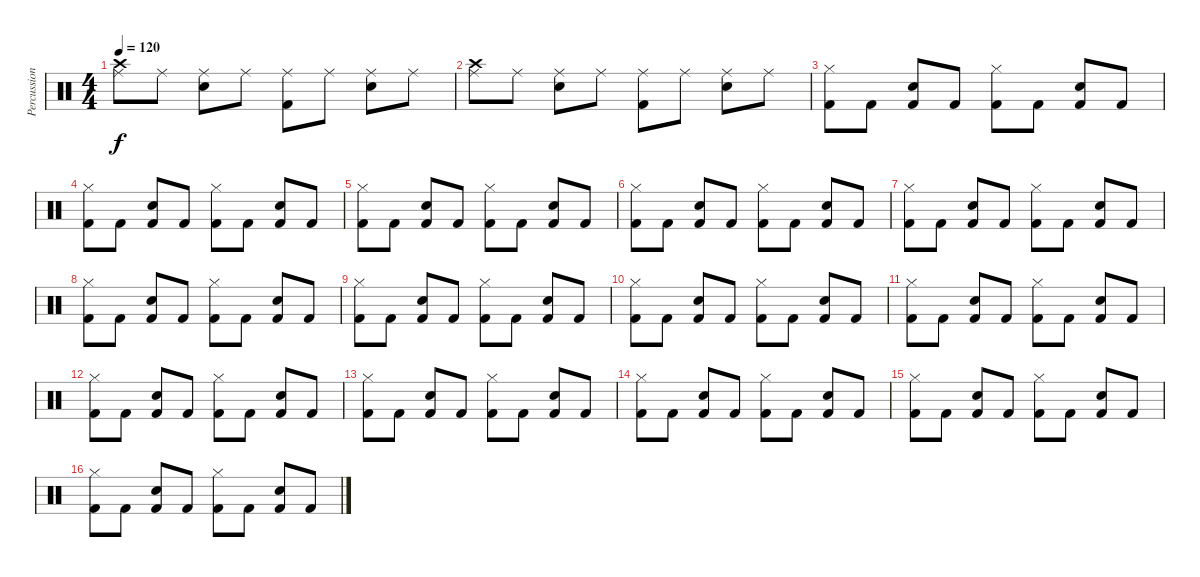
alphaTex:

\track ("Percussions" "Percussion") {instrument percussion}
\staff {score}
\articulation defaults
\ts (4 4)
\tempo 120
\clef neutral
\ks c
("Ride (middle)" "Crash high (hit)").8{dy f} "Ride (middle)".8 ("Ride (middle)" "Electric Snare (hit)").8 "Ride (middle)".8 ("Ride (middle)" "Kick (hit) 2").8 "Ride (middle)".8 ("Ride (middle)" "Electric Snare (hit)").8 "Ride (middle)".8 |
("Ride (middle)" "Crash high (hit)").8 "Ride (middle)".8 ("Ride (middle)" "Electric Snare (hit)").8 "Ride (middle)".8 ("Ride (middle)" "Kick (hit) 2").8 "Ride (middle)".8 ("Ride (middle)" "Electric Snare (hit)").8 "Ride (middle)".8 |
("Kick (hit) 2" "Hi-Hat (closed)").8 "Kick (hit) 2".8 ("Kick (hit) 2" "Electric Snare (hit)").8 "Kick (hit) 2".8 ("Kick (hit) 2" "Hi-Hat (closed)").8 "Kick (hit) 2".8 ("Kick (hit) 2" "Electric Snare (hit)").8 "Kick (hit) 2".8 |
("Kick (hit) 2" "Hi-Hat (closed)").8 "Kick (hit) 2".8 ("Kick (hit) 2" "Electric Snare (hit)").8 "Kick (hit) 2".8 ("Kick (hit) 2" "Hi-Hat (closed)").8 "Kick (hit) 2".8 ("Kick (hit) 2" "Electric Snare (hit)").8 "Kick (hit) 2".8 |
("Kick (hit) 2" "Hi-Hat (closed)").8 "Kick (hit) 2".8 ("Kick (hit) 2" "Electric Snare (hit)").8 "Kick (hit) 2".8 ("Kick (hit) 2" "Hi-Hat (closed)").8 "Kick (hit) 2".8 ("Kick (hit) 2" "Electric Snare (hit)").8 "Kick (hit) 2".8 |
("Kick (hit) 2" "Hi-Hat (closed)").8 "Kick (hit) 2".8 ("Kick (hit) 2" "Electric Snare (hit)").8 "Kick (hit) 2".8 ("Kick (hit) 2" "Hi-Hat (closed)").8 "Kick (hit) 2".8 ("Kick (hit) 2" "Electric Snare (hit)").8 "Kick (hit) 2".8 |
("Kick (hit) 2" "Hi-Hat (closed)").8 "Kick (hit) 2".8 ("Kick (hit) 2" "Electric Snare (hit)").8 "Kick (hit) 2".8 ("Kick (hit) 2" "Hi-Hat (closed)").8 "Kick (hit) 2".8 ("Kick (hit) 2" "Electric Snare (hit)").8 "Kick (hit) 2".8 |
("Kick (hit) 2" "Hi-Hat (closed)").8 "Kick (hit) 2".8 ("Kick (hit) 2" "Electric Snare (hit)").8 "Kick (hit) 2".8 ("Kick (hit) 2" "Hi-Hat (closed)").8 "Kick (hit) 2".8 ("Kick (hit) 2" "Electric Snare (hit)").8 "Kick (hit) 2".8 |
("Kick (hit) 2" "Hi-Hat (closed)").8 "Kick (hit) 2".8 ("Kick (hit) 2" "Electric Snare (hit)").8 "Kick (hit) 2".8 ("Kick (hit) 2" "Hi-Hat (closed)").8 "Kick (hit) 2".8 ("Kick (hit) 2" "Electric Snare (hit)").8 "Kick (hit) 2".8 |
("Kick (hit) 2" "Hi-Hat (closed)").8 "Kick (hit) 2".8 ("Kick (hit) 2" "Electric Snare (hit)").8 "Kick (hit) 2".8 ("Kick (hit) 2" "Hi-Hat (closed)").8 "Kick (hit) 2".8 ("Kick (hit) 2" "Electric Snare (hit)").8 "Kick (hit) 2".8 |
("Kick (hit) 2" "Hi-Hat (closed)").8 "Kick (hit) 2".8 ("Kick (hit) 2" "Electric Snare (hit)").8 "Kick (hit) 2".8 ("Kick (hit) 2" "Hi-Hat (closed)").8 "Kick (hit) 2".8 ("Kick (hit) 2" "Electric Snare (hit)").8 "Kick (hit) 2".8 |
("Kick (hit) 2" "Hi-Hat (closed)").8 "Kick (hit) 2".8 ("Kick (hit) 2" "Electric Snare (hit)").8 "Kick (hit) 2".8 ("Kick (hit) 2" "Hi-Hat (closed)").8 "Kick (hit) 2".8 ("Kick (hit) 2" "Electric Snare (hit)").8 "Kick (hit) 2".8 |
("Kick (hit) 2" "Hi-Hat (closed)").8 "Kick (hit) 2".8 ("Kick (hit) 2" "Electric Snare (hit)").8 "Kick (hit) 2".8 ("Kick (hit) 2" "Hi-Hat (closed)").8 "Kick (hit) 2".8 ("Kick (hit) 2" "Electric Snare (hit)").8 "Kick (hit) 2".8 |
("Kick (hit) 2" "Hi-Hat (closed)").8 "Kick (hit) 2".8 ("Kick (hit) 2" "Electric Snare (hit)").8 "Kick (hit) 2".8 ("Kick (hit) 2" "Hi-Hat (closed)").8 "Kick (hit) 2".8 ("Kick (hit) 2" "Electric Snare (hit)").8 "Kick (hit) 2".8 |
("Kick (hit) 2" "Hi-Hat (closed)").8 "Kick (hit) 2".8 ("Kick (hit) 2" "Electric Snare (hit)").8 "Kick (hit) 2".8 ("Kick (hit) 2" "Hi-Hat (closed)").8 "Kick (hit) 2".8 ("Kick (hit) 2" "Electric Snare (hit)").8 "Kick (hit) 2".8 |
("Kick (hit) 2" "Hi-Hat (closed)").8 "Kick (hit) 2".8 ("Kick (hit) 2" "Electric Snare (hit)").8 "Kick (hit) 2".8 ("Kick (hit) 2" "Hi-Hat (closed)").8 "Kick (hit) 2".8 ("Kick (hit) 2" "Electric Snare (hit)").8 "Kick (hit) 2".8
